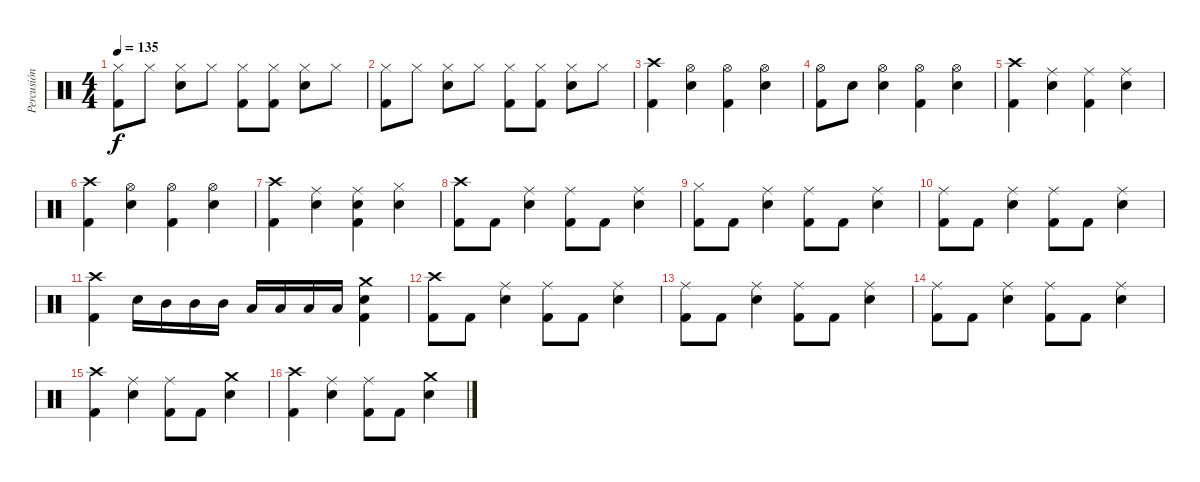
\track ("Percusión" "Percusión") {instrument percussion}
\staff {score}
\articulation defaults
\ts (4 4)
\tempo 135
\clef neutral
\ks c
("Hi-Hat (closed)" "Kick (hit) 2").8{dy f} "Hi-Hat (closed)".8 ("Hi-Hat (closed)" "Electric Snare (hit)").8 "Hi-Hat (closed)".8 ("Hi-Hat (closed)" "Kick (hit) 2").8 ("Hi-Hat (closed)" "Kick (hit) 2").8 ("Hi-Hat (closed)" "Electric Snare (hit)").8 "Hi-Hat (closed)".8 |
("Hi-Hat (closed)" "Kick (hit) 2").8 "Hi-Hat (closed)".8 ("Hi-Hat (closed)" "Electric Snare (hit)").8 "Hi-Hat (closed)".8 ("Hi-Hat (closed)" "Kick (hit) 2").8 ("Hi-Hat (closed)" "Kick (hit) 2").8 ("Hi-Hat (closed)" "Electric Snare (hit)").8 "Hi-Hat (closed)".8 |
("Crash high (hit)" "Kick (hit) 2").4 ("Hi-Hat (open)" "Electric Snare (hit)").4 ("Hi-Hat (open)" "Kick (hit) 2").4 ("Hi-Hat (open)" "Electric Snare (hit)").4 |
("Hi-Hat (open)" "Kick (hit) 2").8 "Electric Snare (hit)".8 ("Hi-Hat (open)" "Electric Snare (hit)").4 ("Hi-Hat (open)" "Kick (hit) 2").4 ("Hi-Hat (open)" "Electric Snare (hit)").4 |
("Crash high (hit)" "Kick (hit) 2").4 ("Ride (middle)" "Electric Snare (hit)").4 ("Ride (middle)" "Kick (hit) 2").4 ("Ride (middle)" "Electric Snare (hit)").4 |
("Crash high (hit)" "Kick (hit) 2").4 ("Hi-Hat (open)" "Electric Snare (hit)").4 ("Hi-Hat (open)" "Kick (hit) 2").4 ("Hi-Hat (open)" "Electric Snare (hit)").4 |
("Crash high (hit)" "Kick (hit) 2").4 ("Ride (middle)" "Electric Snare (hit)").4 ("Ride (middle)" "Electric Snare (hit)" "Kick (hit) 2").4 ("Hi-Hat (closed)" "Electric Snare (hit)").4 |
("Crash high (hit)" "Kick (hit) 2").8 "Kick (hit) 2".8 ("Ride (middle)" "Electric Snare (hit)").4 ("Ride (middle)" "Kick (hit) 2").8 "Kick (hit) 2".8 ("Ride (middle)" "Electric Snare (hit)").4 |
("Hi-Hat (closed)" "Kick (hit) 2").8 "Kick (hit) 2".8 ("Ride (middle)" "Electric Snare (hit)").4 ("Ride (middle)" "Kick (hit) 2").8 "Kick (hit) 2".8 ("Ride (middle)" "Electric Snare (hit)").4 |
("Ride (middle)" "Kick (hit) 2").8 "Kick (hit) 2".8 ("Ride (middle)" "Electric Snare (hit)").4 ("Ride (middle)" "Kick (hit) 2").8 "Kick (hit) 2".8 ("Ride (middle)" "Electric Snare (hit)").4 |
("Crash high (hit)" "Kick (hit) 2").4 "Electric Snare (hit)".16 "Mid Tom (hit)".16 "Mid Tom (hit)".16 "Mid Tom (hit)".16 "Low Tom (hit)".16 "Low Tom (hit)".16 "Low Tom (hit)".16 "Low Tom (hit)".16 ("Crash medium (hit)" "Electric Snare (hit)" "Kick (hit) 2").4 |
("Crash high (hit)" "Kick (hit) 2").8 "Kick (hit) 2".8 ("Ride (middle)" "Electric Snare (hit)").4 ("Ride (middle)" "Kick (hit) 2").8 "Kick (hit) 2".8 ("Ride (middle)" "Electric Snare (hit)").4 |
("Ride (middle)" "Kick (hit) 2").8 "Kick (hit) 2".8 ("Ride (middle)" "Electric Snare (hit)").4 ("Ride (middle)" "Kick (hit) 2").8 "Kick (hit) 2".8 ("Ride (middle)" "Electric Snare (hit)").4 |
("Ride (middle)" "Kick (hit) 2").8 "Kick (hit) 2".8 ("Ride (middle)" "Electric Snare (hit)").4 ("Ride (middle)" "Kick (hit) 2").8 "Kick (hit) 2".8 ("Ride (middle)" "Electric Snare (hit)").4 |
("Crash high (hit)" "Kick (hit) 2").4 ("Ride (middle)" "Electric Snare (hit)").4 ("Ride (middle)" "Kick (hit) 2").8 "Kick (hit) 2".8 ("Crash medium (hit)" "Electric Snare (hit)").4 |
("Crash high (hit)" "Kick (hit) 2").4 ("Ride (middle)" "Electric Snare (hit)").4 ("Ride (middle)" "Kick (hit) 2").8 "Kick (hit) 2".8 ("Crash medium (hit)" "Electric Snare (hit)").4
